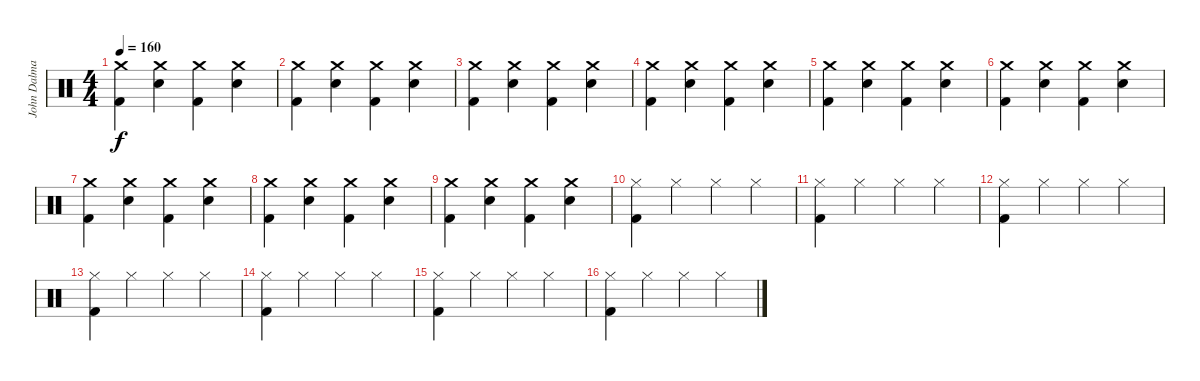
\track ("John Dalmayian - Drums" "John Dalma") {instrument percussion}
\staff {score}
\articulation defaults
\ts (4 4)
\tempo 160
\clef neutral
\ks c
("Crash medium (hit)" "Kick (hit) 2").4{dy f} ("Crash medium (hit)" "Snare (hit) 2").4 ("Crash medium (hit)" "Kick (hit) 2").4 ("Crash medium (hit)" "Snare (hit) 2").4 |
("Crash medium (hit)" "Kick (hit) 2").4 ("Crash medium (hit)" "Snare (hit) 2").4 ("Crash medium (hit)" "Kick (hit) 2").4 ("Crash medium (hit)" "Snare (hit) 2").4 |
("Crash medium (hit)" "Kick (hit) 2").4 ("Crash medium (hit)" "Snare (hit) 2").4 ("Crash medium (hit)" "Kick (hit) 2").4 ("Crash medium (hit)" "Snare (hit) 2").4 |
("Crash medium (hit)" "Kick (hit) 2").4 ("Crash medium (hit)" "Snare (hit) 2").4 ("Crash medium (hit)" "Kick (hit) 2").4 ("Crash medium (hit)" "Snare (hit) 2").4 |
("Crash medium (hit)" "Kick (hit) 2").4 ("Crash medium (hit)" "Snare (hit) 2").4 ("Crash medium (hit)" "Kick (hit) 2").4 ("Crash medium (hit)" "Snare (hit) 2").4 |
("Crash medium (hit)" "Kick (hit) 2").4 ("Crash medium (hit)" "Snare (hit) 2").4 ("Crash medium (hit)" "Kick (hit) 2").4 ("Crash medium (hit)" "Snare (hit) 2").4 |
("Crash medium (hit)" "Kick (hit) 2").4 ("Crash medium (hit)" "Snare (hit) 2").4 ("Crash medium (hit)" "Kick (hit) 2").4 ("Crash medium (hit)" "Snare (hit) 2").4 |
("Crash medium (hit)" "Kick (hit) 2").4 ("Crash medium (hit)" "Snare (hit) 2").4 ("Crash medium (hit)" "Kick (hit) 2").4 ("Crash medium (hit)" "Snare (hit) 2").4 |
("Crash medium (hit)" "Kick (hit) 2").4 ("Crash medium (hit)" "Snare (hit) 2").4 ("Crash medium (hit)" "Kick (hit) 2").4 ("Crash medium (hit)" "Snare (hit) 2").4 |
("Hi-Hat (closed)" "Kick (hit) 2").4 "Hi-Hat (closed)".4 "Hi-Hat (closed)".4 "Hi-Hat (closed)".4 |
("Hi-Hat (closed)" "Kick (hit) 2").4 "Hi-Hat (closed)".4 "Hi-Hat (closed)".4 "Hi-Hat (closed)".4 |
("Hi-Hat (closed)" "Kick (hit) 2").4 "Hi-Hat (closed)".4 "Hi-Hat (closed)".4 "Hi-Hat (closed)".4 |
("Hi-Hat (closed)" "Kick (hit) 2").4 "Hi-Hat (closed)".4 "Hi-Hat (closed)".4 "Hi-Hat (closed)".4 |
("Hi-Hat (closed)" "Kick (hit) 2").4 "Hi-Hat (closed)".4 "Hi-Hat (closed)".4 "Hi-Hat (closed)".4 |
("Hi-Hat (closed)" "Kick (hit) 2").4 "Hi-Hat (closed)".4 "Hi-Hat (closed)".4 "Hi-Hat (closed)".4 |
("Hi-Hat (closed)" "Kick (hit) 2").4 "Hi-Hat (closed)".4 "Hi-Hat (closed)".4 "Hi-Hat (closed)".4
